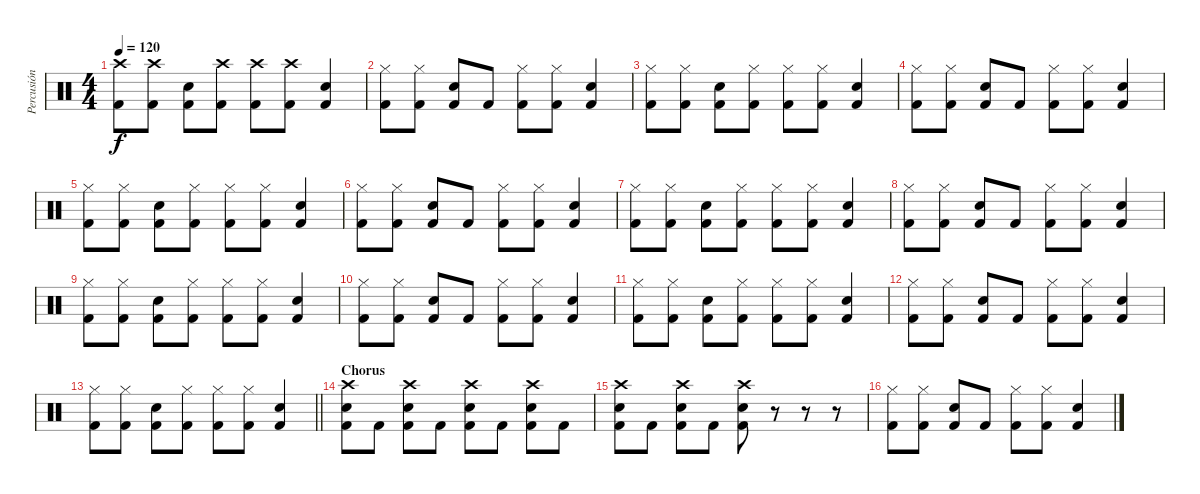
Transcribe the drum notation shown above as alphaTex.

\track ("Percusión" "Percusión") {instrument percussion}
\staff {score}
\articulation defaults
\ts (4 4)
\tempo 120
\clef neutral
\ks c
("Crash high (hit)" "Kick (hit) 2").8{dy f} ("Crash high (hit)" "Kick (hit) 2").8 ("Snare (hit) 2" "Kick (hit) 2").8 ("Crash high (hit)" "Kick (hit) 2").8 ("Crash high (hit)" "Kick (hit) 2").8 ("Crash high (hit)" "Kick (hit) 2").8 ("Snare (hit) 2" "Kick (hit) 2").4 |
("Hi-Hat (closed)" "Kick (hit) 2").8 ("Hi-Hat (closed)" "Kick (hit) 2").8 ("Snare (hit) 2" "Kick (hit) 2").8 "Kick (hit) 2".8 ("Hi-Hat (closed)" "Kick (hit) 2").8 ("Hi-Hat (closed)" "Kick (hit) 2").8 ("Snare (hit) 2" "Kick (hit) 2").4 |
("Hi-Hat (closed)" "Kick (hit) 2").8 ("Hi-Hat (closed)" "Kick (hit) 2").8 ("Snare (hit) 2" "Kick (hit) 2").8 ("Hi-Hat (closed)" "Kick (hit) 2").8 ("Hi-Hat (closed)" "Kick (hit) 2").8 ("Hi-Hat (closed)" "Kick (hit) 2").8 ("Snare (hit) 2" "Kick (hit) 2").4 |
("Hi-Hat (closed)" "Kick (hit) 2").8 ("Hi-Hat (closed)" "Kick (hit) 2").8 ("Snare (hit) 2" "Kick (hit) 2").8 "Kick (hit) 2".8 ("Hi-Hat (closed)" "Kick (hit) 2").8 ("Hi-Hat (closed)" "Kick (hit) 2").8 ("Snare (hit) 2" "Kick (hit) 2").4 |
("Hi-Hat (closed)" "Kick (hit) 2").8 ("Hi-Hat (closed)" "Kick (hit) 2").8 ("Snare (hit) 2" "Kick (hit) 2").8 ("Hi-Hat (closed)" "Kick (hit) 2").8 ("Hi-Hat (closed)" "Kick (hit) 2").8 ("Hi-Hat (closed)" "Kick (hit) 2").8 ("Snare (hit) 2" "Kick (hit) 2").4 |
("Hi-Hat (closed)" "Kick (hit) 2").8 ("Hi-Hat (closed)" "Kick (hit) 2").8 ("Snare (hit) 2" "Kick (hit) 2").8 "Kick (hit) 2".8 ("Hi-Hat (closed)" "Kick (hit) 2").8 ("Hi-Hat (closed)" "Kick (hit) 2").8 ("Snare (hit) 2" "Kick (hit) 2").4 |
("Hi-Hat (closed)" "Kick (hit) 2").8 ("Hi-Hat (closed)" "Kick (hit) 2").8 ("Snare (hit) 2" "Kick (hit) 2").8 ("Hi-Hat (closed)" "Kick (hit) 2").8 ("Hi-Hat (closed)" "Kick (hit) 2").8 ("Hi-Hat (closed)" "Kick (hit) 2").8 ("Snare (hit) 2" "Kick (hit) 2").4 |
("Hi-Hat (closed)" "Kick (hit) 2").8 ("Hi-Hat (closed)" "Kick (hit) 2").8 ("Snare (hit) 2" "Kick (hit) 2").8 "Kick (hit) 2".8 ("Hi-Hat (closed)" "Kick (hit) 2").8 ("Hi-Hat (closed)" "Kick (hit) 2").8 ("Snare (hit) 2" "Kick (hit) 2").4 |
("Hi-Hat (closed)" "Kick (hit) 2").8 ("Hi-Hat (closed)" "Kick (hit) 2").8 ("Snare (hit) 2" "Kick (hit) 2").8 ("Hi-Hat (closed)" "Kick (hit) 2").8 ("Hi-Hat (closed)" "Kick (hit) 2").8 ("Hi-Hat (closed)" "Kick (hit) 2").8 ("Snare (hit) 2" "Kick (hit) 2").4 |
("Hi-Hat (closed)" "Kick (hit) 2").8 ("Hi-Hat (closed)" "Kick (hit) 2").8 ("Snare (hit) 2" "Kick (hit) 2").8 "Kick (hit) 2".8 ("Hi-Hat (closed)" "Kick (hit) 2").8 ("Hi-Hat (closed)" "Kick (hit) 2").8 ("Snare (hit) 2" "Kick (hit) 2").4 |
("Hi-Hat (closed)" "Kick (hit) 2").8 ("Hi-Hat (closed)" "Kick (hit) 2").8 ("Snare (hit) 2" "Kick (hit) 2").8 ("Hi-Hat (closed)" "Kick (hit) 2").8 ("Hi-Hat (closed)" "Kick (hit) 2").8 ("Hi-Hat (closed)" "Kick (hit) 2").8 ("Snare (hit) 2" "Kick (hit) 2").4 |
("Hi-Hat (closed)" "Kick (hit) 2").8 ("Hi-Hat (closed)" "Kick (hit) 2").8 ("Snare (hit) 2" "Kick (hit) 2").8 "Kick (hit) 2".8 ("Hi-Hat (closed)" "Kick (hit) 2").8 ("Hi-Hat (closed)" "Kick (hit) 2").8 ("Snare (hit) 2" "Kick (hit) 2").4 |
\barLineRight lightlight
("Hi-Hat (closed)" "Kick (hit) 2").8 ("Hi-Hat (closed)" "Kick (hit) 2").8 ("Snare (hit) 2" "Kick (hit) 2").8 ("Hi-Hat (closed)" "Kick (hit) 2").8 ("Hi-Hat (closed)" "Kick (hit) 2").8 ("Hi-Hat (closed)" "Kick (hit) 2").8 ("Snare (hit) 2" "Kick (hit) 2").4 |
\section ("" "Chorus")
("Crash high (hit)" "Snare (hit) 2" "Kick (hit) 2").8 "Kick (hit) 2".8 ("Crash high (hit)" "Snare (hit) 2" "Kick (hit) 2").8 "Kick (hit) 2".8 ("Crash high (hit)" "Snare (hit) 2" "Kick (hit) 2").8 "Kick (hit) 2".8 ("Crash high (hit)" "Snare (hit) 2" "Kick (hit) 2").8 "Kick (hit) 2".8 |
("Crash high (hit)" "Snare (hit) 2" "Kick (hit) 2").8 "Kick (hit) 2".8 ("Crash high (hit)" "Snare (hit) 2" "Kick (hit) 2").8 "Kick (hit) 2".8 ("Crash high (hit)" "Snare (hit) 2" "Kick (hit) 2").8 r.8 r.8 r.8 |
("Hi-Hat (closed)" "Kick (hit) 2").8 ("Hi-Hat (closed)" "Kick (hit) 2").8 ("Snare (hit) 2" "Kick (hit) 2").8 "Kick (hit) 2".8 ("Hi-Hat (closed)" "Kick (hit) 2").8 ("Hi-Hat (closed)" "Kick (hit) 2").8 ("Snare (hit) 2" "Kick (hit) 2").4
